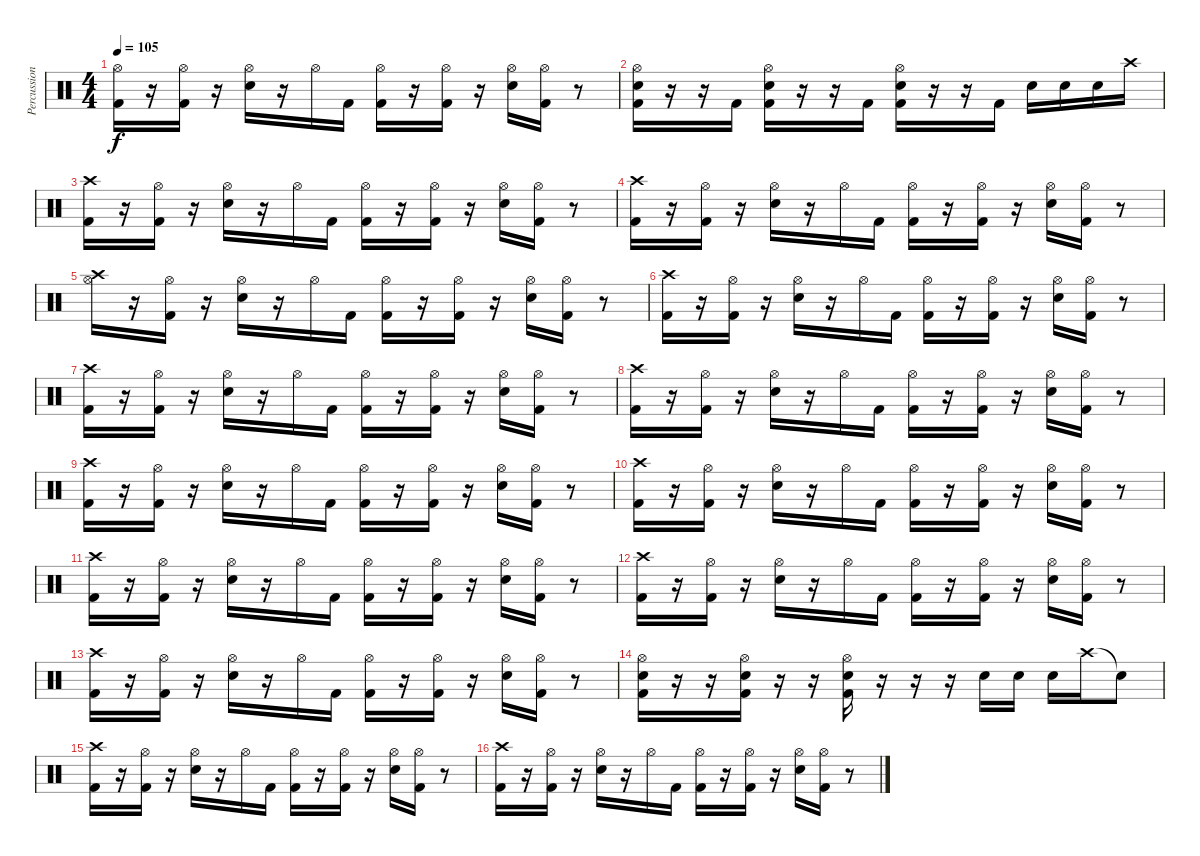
\track ("Percussions" "Percussion") {instrument percussion}
\staff {score}
\articulation defaults
\ts (4 4)
\tempo 105
\clef neutral
\ks c
("Hi-Hat (open)" "Kick (hit) 2").16{dy f} r.16 ("Hi-Hat (open)" "Kick (hit) 2").16 r.16 ("Hi-Hat (open)" "Snare (hit) 2").16 r.16 "Hi-Hat (open)".16 "Kick (hit) 2".16 ("Kick (hit) 2" "Hi-Hat (open)").16 r.16 ("Kick (hit) 2" "Hi-Hat (open)").16 r.16 ("Hi-Hat (open)" "Snare (hit) 2").16 ("Kick (hit) 2" "Hi-Hat (open)").16 r.8 |
("Kick (hit) 2" "Snare (hit) 2" "Hi-Hat (open)").16 r.16 r.16 "Kick (hit) 2".16 ("Kick (hit) 2" "Snare (hit) 2" "Hi-Hat (open)").16 r.16 r.16 "Kick (hit) 2".16 ("Kick (hit) 2" "Snare (hit) 2" "Hi-Hat (open)").16 r.16 r.16 "Kick (hit) 2".16 "Snare (hit) 2".16 "Snare (hit) 2".16 "Snare (hit) 2".16 "Crash high (hit)".16 |
("Crash high (hit)" "Kick (hit) 2").16 r.16 ("Hi-Hat (open)" "Kick (hit) 2").16 r.16 ("Hi-Hat (open)" "Snare (hit) 2").16 r.16 "Hi-Hat (open)".16 "Kick (hit) 2".16 ("Kick (hit) 2" "Hi-Hat (open)").16 r.16 ("Kick (hit) 2" "Hi-Hat (open)").16 r.16 ("Hi-Hat (open)" "Snare (hit) 2").16 ("Kick (hit) 2" "Hi-Hat (open)").16 r.8 |
("Crash high (hit)" "Kick (hit) 2").16 r.16 ("Hi-Hat (open)" "Kick (hit) 2").16 r.16 ("Hi-Hat (open)" "Snare (hit) 2").16 r.16 "Hi-Hat (open)".16 "Kick (hit) 2".16 ("Kick (hit) 2" "Hi-Hat (open)").16 r.16 ("Kick (hit) 2" "Hi-Hat (open)").16 r.16 ("Hi-Hat (open)" "Snare (hit) 2").16 ("Kick (hit) 2" "Hi-Hat (open)").16 r.8 |
("Hi-Hat (open)" "Crash high (hit)").16 r.16 ("Hi-Hat (open)" "Kick (hit) 2").16 r.16 ("Hi-Hat (open)" "Snare (hit) 2").16 r.16 "Hi-Hat (open)".16 "Kick (hit) 2".16 ("Kick (hit) 2" "Hi-Hat (open)").16 r.16 ("Kick (hit) 2" "Hi-Hat (open)").16 r.16 ("Hi-Hat (open)" "Snare (hit) 2").16 ("Kick (hit) 2" "Hi-Hat (open)").16 r.8 |
("Crash high (hit)" "Kick (hit) 2").16 r.16 ("Hi-Hat (open)" "Kick (hit) 2").16 r.16 ("Hi-Hat (open)" "Snare (hit) 2").16 r.16 "Hi-Hat (open)".16 "Kick (hit) 2".16 ("Kick (hit) 2" "Hi-Hat (open)").16 r.16 ("Kick (hit) 2" "Hi-Hat (open)").16 r.16 ("Hi-Hat (open)" "Snare (hit) 2").16 ("Kick (hit) 2" "Hi-Hat (open)").16 r.8 |
("Crash high (hit)" "Kick (hit) 2").16 r.16 ("Hi-Hat (open)" "Kick (hit) 2").16 r.16 ("Hi-Hat (open)" "Snare (hit) 2").16 r.16 "Hi-Hat (open)".16 "Kick (hit) 2".16 ("Kick (hit) 2" "Hi-Hat (open)").16 r.16 ("Kick (hit) 2" "Hi-Hat (open)").16 r.16 ("Hi-Hat (open)" "Snare (hit) 2").16 ("Kick (hit) 2" "Hi-Hat (open)").16 r.8 |
("Crash high (hit)" "Kick (hit) 2").16 r.16 ("Hi-Hat (open)" "Kick (hit) 2").16 r.16 ("Hi-Hat (open)" "Snare (hit) 2").16 r.16 "Hi-Hat (open)".16 "Kick (hit) 2".16 ("Kick (hit) 2" "Hi-Hat (open)").16 r.16 ("Kick (hit) 2" "Hi-Hat (open)").16 r.16 ("Hi-Hat (open)" "Snare (hit) 2").16 ("Kick (hit) 2" "Hi-Hat (open)").16 r.8 |
("Crash high (hit)" "Kick (hit) 2").16 r.16 ("Hi-Hat (open)" "Kick (hit) 2").16 r.16 ("Hi-Hat (open)" "Snare (hit) 2").16 r.16 "Hi-Hat (open)".16 "Kick (hit) 2".16 ("Kick (hit) 2" "Hi-Hat (open)").16 r.16 ("Kick (hit) 2" "Hi-Hat (open)").16 r.16 ("Hi-Hat (open)" "Snare (hit) 2").16 ("Kick (hit) 2" "Hi-Hat (open)").16 r.8 |
("Crash high (hit)" "Kick (hit) 2").16 r.16 ("Hi-Hat (open)" "Kick (hit) 2").16 r.16 ("Hi-Hat (open)" "Snare (hit) 2").16 r.16 "Hi-Hat (open)".16 "Kick (hit) 2".16 ("Kick (hit) 2" "Hi-Hat (open)").16 r.16 ("Kick (hit) 2" "Hi-Hat (open)").16 r.16 ("Hi-Hat (open)" "Snare (hit) 2").16 ("Kick (hit) 2" "Hi-Hat (open)").16 r.8 |
("Crash high (hit)" "Kick (hit) 2").16 r.16 ("Hi-Hat (open)" "Kick (hit) 2").16 r.16 ("Hi-Hat (open)" "Snare (hit) 2").16 r.16 "Hi-Hat (open)".16 "Kick (hit) 2".16 ("Kick (hit) 2" "Hi-Hat (open)").16 r.16 ("Kick (hit) 2" "Hi-Hat (open)").16 r.16 ("Hi-Hat (open)" "Snare (hit) 2").16 ("Kick (hit) 2" "Hi-Hat (open)").16 r.8 |
("Crash high (hit)" "Kick (hit) 2").16 r.16 ("Hi-Hat (open)" "Kick (hit) 2").16 r.16 ("Hi-Hat (open)" "Snare (hit) 2").16 r.16 "Hi-Hat (open)".16 "Kick (hit) 2".16 ("Kick (hit) 2" "Hi-Hat (open)").16 r.16 ("Kick (hit) 2" "Hi-Hat (open)").16 r.16 ("Hi-Hat (open)" "Snare (hit) 2").16 ("Kick (hit) 2" "Hi-Hat (open)").16 r.8 |
("Crash high (hit)" "Kick (hit) 2").16 r.16 ("Hi-Hat (open)" "Kick (hit) 2").16 r.16 ("Hi-Hat (open)" "Snare (hit) 2").16 r.16 "Hi-Hat (open)".16 "Kick (hit) 2".16 ("Kick (hit) 2" "Hi-Hat (open)").16 r.16 ("Kick (hit) 2" "Hi-Hat (open)").16 r.16 ("Hi-Hat (open)" "Snare (hit) 2").16 ("Kick (hit) 2" "Hi-Hat (open)").16 r.8 |
("Kick (hit) 2" "Snare (hit) 2" "Hi-Hat (open)").16 r.16 r.16 ("Kick (hit) 2" "Snare (hit) 2" "Hi-Hat (open)").16 r.16 r.16 ("Kick (hit) 2" "Snare (hit) 2" "Hi-Hat (open)").16 r.16 r.16 r.16 "Snare (hit) 2".16 "Snare (hit) 2".16 "Snare (hit) 2".16 "Crash high (hit)".16 "Snare (hit)"{t}.8 |
("Crash high (hit)" "Kick (hit) 2").16 r.16 ("Hi-Hat (open)" "Kick (hit) 2").16 r.16 ("Hi-Hat (open)" "Snare (hit) 2").16 r.16 "Hi-Hat (open)".16 "Kick (hit) 2".16 ("Kick (hit) 2" "Hi-Hat (open)").16 r.16 ("Kick (hit) 2" "Hi-Hat (open)").16 r.16 ("Hi-Hat (open)" "Snare (hit) 2").16 ("Kick (hit) 2" "Hi-Hat (open)").16 r.8 |
("Crash high (hit)" "Kick (hit) 2").16 r.16 ("Hi-Hat (open)" "Kick (hit) 2").16 r.16 ("Hi-Hat (open)" "Snare (hit) 2").16 r.16 "Hi-Hat (open)".16 "Kick (hit) 2".16 ("Kick (hit) 2" "Hi-Hat (open)").16 r.16 ("Kick (hit) 2" "Hi-Hat (open)").16 r.16 ("Hi-Hat (open)" "Snare (hit) 2").16 ("Kick (hit) 2" "Hi-Hat (open)").16 r.8
